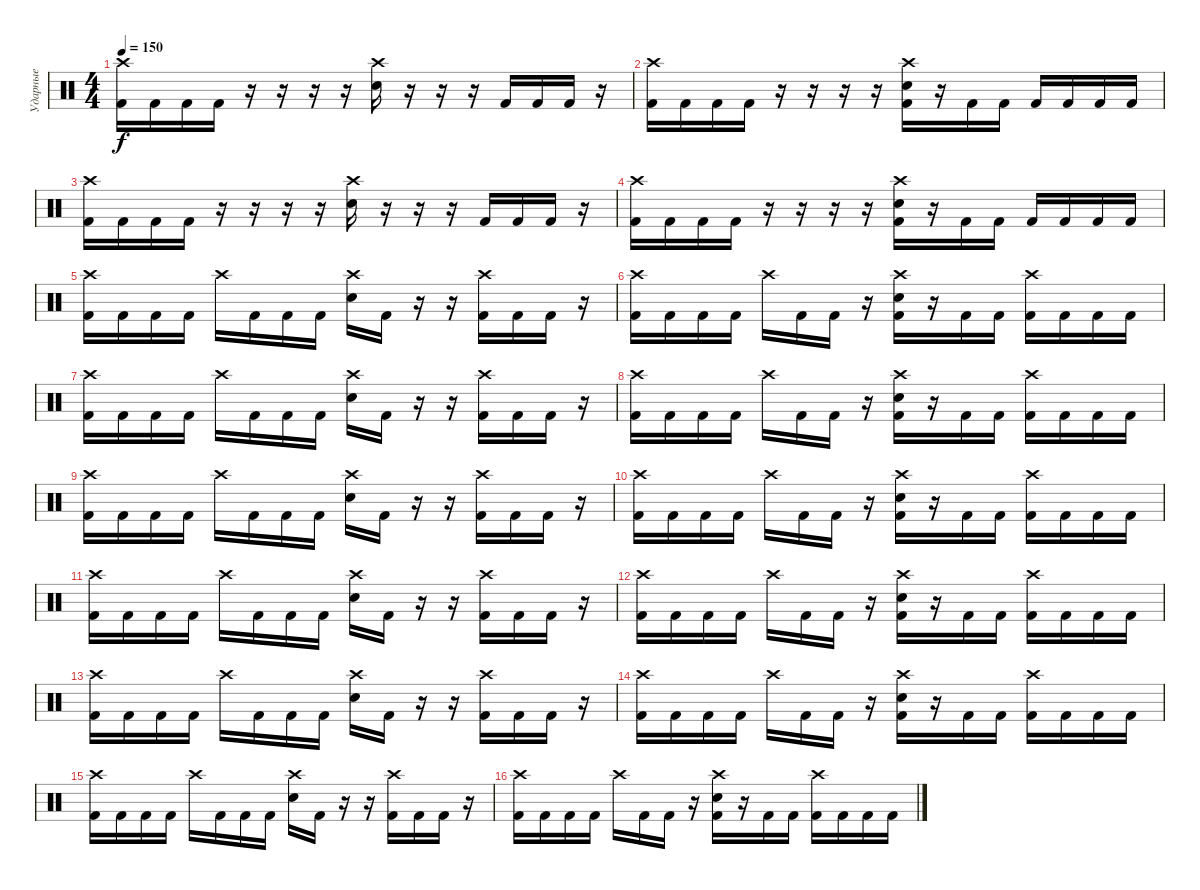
\track ("Ударные" "Ударные") {instrument percussion}
\staff {score}
\articulation defaults
\ts (4 4)
\tempo 150
\clef neutral
\ks c
("Crash high (hit)" "Kick (hit) 2").16{dy f} "Kick (hit) 2".16 "Kick (hit) 2".16 "Kick (hit) 2".16 r.16 r.16 r.16 r.16 ("Crash high (hit)" "Electric Snare (hit)").16 r.16 r.16 r.16 "Kick (hit) 2".16 "Kick (hit) 2".16 "Kick (hit) 2".16 r.16 |
("Crash high (hit)" "Kick (hit) 2").16 "Kick (hit) 2".16 "Kick (hit) 2".16 "Kick (hit) 2".16 r.16 r.16 r.16 r.16 ("Crash high (hit)" "Electric Snare (hit)" "Kick (hit) 2").16 r.16 "Kick (hit) 2".16 "Kick (hit) 2".16 "Kick (hit) 2".16 "Kick (hit) 2".16 "Kick (hit) 2".16 "Kick (hit) 2".16 |
("Crash high (hit)" "Kick (hit) 2").16 "Kick (hit) 2".16 "Kick (hit) 2".16 "Kick (hit) 2".16 r.16 r.16 r.16 r.16 ("Crash high (hit)" "Electric Snare (hit)").16 r.16 r.16 r.16 "Kick (hit) 2".16 "Kick (hit) 2".16 "Kick (hit) 2".16 r.16 |
("Crash high (hit)" "Kick (hit) 2").16 "Kick (hit) 2".16 "Kick (hit) 2".16 "Kick (hit) 2".16 r.16 r.16 r.16 r.16 ("Crash high (hit)" "Electric Snare (hit)" "Kick (hit) 2").16 r.16 "Kick (hit) 2".16 "Kick (hit) 2".16 "Kick (hit) 2".16 "Kick (hit) 2".16 "Kick (hit) 2".16 "Kick (hit) 2".16 |
("Crash high (hit)" "Kick (hit) 2").16 "Kick (hit) 2".16 "Kick (hit) 2".16 "Kick (hit) 2".16 "Crash high (hit)".16 "Kick (hit) 2".16 "Kick (hit) 2".16 "Kick (hit) 2".16 ("Crash high (hit)" "Electric Snare (hit)").16 "Kick (hit) 2".16 r.16 r.16 ("Crash high (hit)" "Kick (hit) 2").16 "Kick (hit) 2".16 "Kick (hit) 2".16 r.16 |
("Crash high (hit)" "Kick (hit) 2").16 "Kick (hit) 2".16 "Kick (hit) 2".16 "Kick (hit) 2".16 "Crash high (hit)".16 "Kick (hit) 2".16 "Kick (hit) 2".16 r.16 ("Crash high (hit)" "Electric Snare (hit)" "Kick (hit) 2").16 r.16 "Kick (hit) 2".16 "Kick (hit) 2".16 ("Crash high (hit)" "Kick (hit) 2").16 "Kick (hit) 2".16 "Kick (hit) 2".16 "Kick (hit) 2".16 |
("Crash high (hit)" "Kick (hit) 2").16 "Kick (hit) 2".16 "Kick (hit) 2".16 "Kick (hit) 2".16 "Crash high (hit)".16 "Kick (hit) 2".16 "Kick (hit) 2".16 "Kick (hit) 2".16 ("Crash high (hit)" "Electric Snare (hit)").16 "Kick (hit) 2".16 r.16 r.16 ("Crash high (hit)" "Kick (hit) 2").16 "Kick (hit) 2".16 "Kick (hit) 2".16 r.16 |
("Crash high (hit)" "Kick (hit) 2").16 "Kick (hit) 2".16 "Kick (hit) 2".16 "Kick (hit) 2".16 "Crash high (hit)".16 "Kick (hit) 2".16 "Kick (hit) 2".16 r.16 ("Crash high (hit)" "Electric Snare (hit)" "Kick (hit) 2").16 r.16 "Kick (hit) 2".16 "Kick (hit) 2".16 ("Crash high (hit)" "Kick (hit) 2").16 "Kick (hit) 2".16 "Kick (hit) 2".16 "Kick (hit) 2".16 |
("Crash high (hit)" "Kick (hit) 2").16 "Kick (hit) 2".16 "Kick (hit) 2".16 "Kick (hit) 2".16 "Crash high (hit)".16 "Kick (hit) 2".16 "Kick (hit) 2".16 "Kick (hit) 2".16 ("Crash high (hit)" "Electric Snare (hit)").16 "Kick (hit) 2".16 r.16 r.16 ("Crash high (hit)" "Kick (hit) 2").16 "Kick (hit) 2".16 "Kick (hit) 2".16 r.16 |
("Crash high (hit)" "Kick (hit) 2").16 "Kick (hit) 2".16 "Kick (hit) 2".16 "Kick (hit) 2".16 "Crash high (hit)".16 "Kick (hit) 2".16 "Kick (hit) 2".16 r.16 ("Crash high (hit)" "Electric Snare (hit)" "Kick (hit) 2").16 r.16 "Kick (hit) 2".16 "Kick (hit) 2".16 ("Crash high (hit)" "Kick (hit) 2").16 "Kick (hit) 2".16 "Kick (hit) 2".16 "Kick (hit) 2".16 |
("Crash high (hit)" "Kick (hit) 2").16 "Kick (hit) 2".16 "Kick (hit) 2".16 "Kick (hit) 2".16 "Crash high (hit)".16 "Kick (hit) 2".16 "Kick (hit) 2".16 "Kick (hit) 2".16 ("Crash high (hit)" "Electric Snare (hit)").16 "Kick (hit) 2".16 r.16 r.16 ("Crash high (hit)" "Kick (hit) 2").16 "Kick (hit) 2".16 "Kick (hit) 2".16 r.16 |
("Crash high (hit)" "Kick (hit) 2").16 "Kick (hit) 2".16 "Kick (hit) 2".16 "Kick (hit) 2".16 "Crash high (hit)".16 "Kick (hit) 2".16 "Kick (hit) 2".16 r.16 ("Crash high (hit)" "Electric Snare (hit)" "Kick (hit) 2").16 r.16 "Kick (hit) 2".16 "Kick (hit) 2".16 ("Crash high (hit)" "Kick (hit) 2").16 "Kick (hit) 2".16 "Kick (hit) 2".16 "Kick (hit) 2".16 |
("Crash high (hit)" "Kick (hit) 2").16 "Kick (hit) 2".16 "Kick (hit) 2".16 "Kick (hit) 2".16 "Crash high (hit)".16 "Kick (hit) 2".16 "Kick (hit) 2".16 "Kick (hit) 2".16 ("Crash high (hit)" "Electric Snare (hit)").16 "Kick (hit) 2".16 r.16 r.16 ("Crash high (hit)" "Kick (hit) 2").16 "Kick (hit) 2".16 "Kick (hit) 2".16 r.16 |
("Crash high (hit)" "Kick (hit) 2").16 "Kick (hit) 2".16 "Kick (hit) 2".16 "Kick (hit) 2".16 "Crash high (hit)".16 "Kick (hit) 2".16 "Kick (hit) 2".16 r.16 ("Crash high (hit)" "Electric Snare (hit)" "Kick (hit) 2").16 r.16 "Kick (hit) 2".16 "Kick (hit) 2".16 ("Crash high (hit)" "Kick (hit) 2").16 "Kick (hit) 2".16 "Kick (hit) 2".16 "Kick (hit) 2".16 |
("Crash high (hit)" "Kick (hit) 2").16 "Kick (hit) 2".16 "Kick (hit) 2".16 "Kick (hit) 2".16 "Crash high (hit)".16 "Kick (hit) 2".16 "Kick (hit) 2".16 "Kick (hit) 2".16 ("Crash high (hit)" "Electric Snare (hit)").16 "Kick (hit) 2".16 r.16 r.16 ("Crash high (hit)" "Kick (hit) 2").16 "Kick (hit) 2".16 "Kick (hit) 2".16 r.16 |
("Crash high (hit)" "Kick (hit) 2").16 "Kick (hit) 2".16 "Kick (hit) 2".16 "Kick (hit) 2".16 "Crash high (hit)".16 "Kick (hit) 2".16 "Kick (hit) 2".16 r.16 ("Crash high (hit)" "Electric Snare (hit)" "Kick (hit) 2").16 r.16 "Kick (hit) 2".16 "Kick (hit) 2".16 ("Crash high (hit)" "Kick (hit) 2").16 "Kick (hit) 2".16 "Kick (hit) 2".16 "Kick (hit) 2".16
